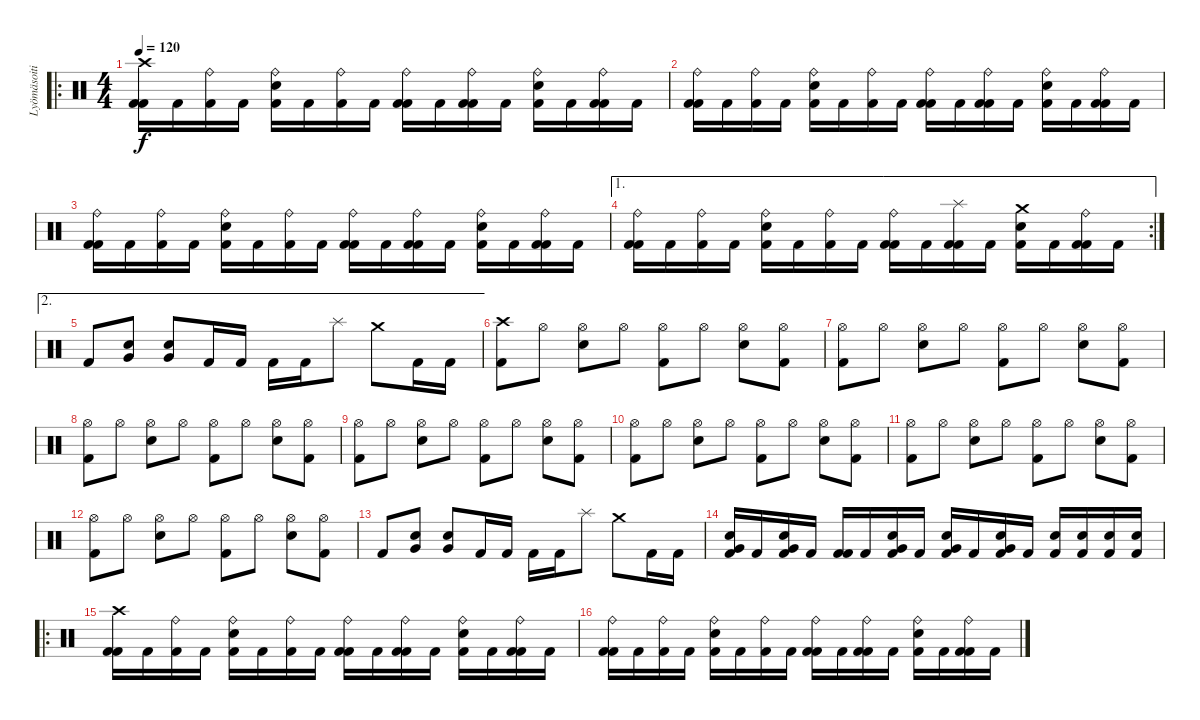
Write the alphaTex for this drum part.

\track ("Lyömäsoitin" "Lyömäsoiti") {instrument percussion}
\staff {score}
\articulation defaults
\ro
\ts (4 4)
\tempo 120
\clef neutral
\ks c
("Crash high (hit)" "Kick (hit) 2" "Kick (hit) 2").16{dy f} "Kick (hit) 2".16 ("Ride (bell)" "Kick (hit) 2").16 "Kick (hit) 2".16 ("Ride (bell)" "Snare (hit) 2" "Kick (hit) 2").16 "Kick (hit) 2".16 ("Ride (bell)" "Kick (hit) 2").16 "Kick (hit) 2".16 ("Ride (bell)" "Kick (hit) 2" "Kick (hit) 2").16 "Kick (hit) 2".16 ("Ride (bell)" "Kick (hit) 2" "Kick (hit) 2").16 "Kick (hit) 2".16 ("Ride (bell)" "Snare (hit) 2" "Kick (hit) 2").16 "Kick (hit) 2".16 ("Ride (bell)" "Kick (hit) 2" "Kick (hit) 2").16 "Kick (hit) 2".16 |
("Ride (bell)" "Kick (hit) 2" "Kick (hit) 2").16 "Kick (hit) 2".16 ("Ride (bell)" "Kick (hit) 2").16 "Kick (hit) 2".16 ("Ride (bell)" "Snare (hit) 2" "Kick (hit) 2").16 "Kick (hit) 2".16 ("Ride (bell)" "Kick (hit) 2").16 "Kick (hit) 2".16 ("Ride (bell)" "Kick (hit) 2" "Kick (hit) 2").16 "Kick (hit) 2".16 ("Ride (bell)" "Kick (hit) 2" "Kick (hit) 2").16 "Kick (hit) 2".16 ("Ride (bell)" "Snare (hit) 2" "Kick (hit) 2").16 "Kick (hit) 2".16 ("Ride (bell)" "Kick (hit) 2" "Kick (hit) 2").16 "Kick (hit) 2".16 |
("Ride (bell)" "Kick (hit) 2" "Kick (hit) 2").16 "Kick (hit) 2".16 ("Ride (bell)" "Kick (hit) 2").16 "Kick (hit) 2".16 ("Ride (bell)" "Snare (hit) 2" "Kick (hit) 2").16 "Kick (hit) 2".16 ("Ride (bell)" "Kick (hit) 2").16 "Kick (hit) 2".16 ("Ride (bell)" "Kick (hit) 2" "Kick (hit) 2").16 "Kick (hit) 2".16 ("Ride (bell)" "Kick (hit) 2" "Kick (hit) 2").16 "Kick (hit) 2".16 ("Ride (bell)" "Snare (hit) 2" "Kick (hit) 2").16 "Kick (hit) 2".16 ("Ride (bell)" "Kick (hit) 2" "Kick (hit) 2").16 "Kick (hit) 2".16 |
\ae 1
\rc 2
("Ride (bell)" "Kick (hit) 2" "Kick (hit) 2").16 "Kick (hit) 2".16 ("Ride (bell)" "Kick (hit) 2").16 "Kick (hit) 2".16 ("Ride (bell)" "Snare (hit) 2" "Kick (hit) 2").16 "Kick (hit) 2".16 ("Ride (bell)" "Kick (hit) 2").16 "Kick (hit) 2".16 ("Ride (bell)" "Kick (hit) 2" "Kick (hit) 2").16 "Kick (hit) 2".16 ("Splash (hit)" "Kick (hit) 2" "Kick (hit) 2").16 "Kick (hit) 2".16 ("Crash medium (hit)" "Snare (hit) 2" "Kick (hit) 2").16 "Kick (hit) 2".16 ("Ride (bell)" "Kick (hit) 2" "Kick (hit) 2").16 "Kick (hit) 2".16 |
\ae 2 "Kick (hit) 2".8
("Very Low Tom (hit)" "Snare (hit) 2").8 ("Very Low Tom (hit)" "Snare (hit) 2").8 "Kick (hit) 2".16 "Kick (hit) 2".16 "Kick (hit) 2".16 "Kick (hit) 2".16 "Splash (hit)".8 "Crash medium (hit)".8 "Kick (hit) 2".16 "Kick (hit) 2".16 |
("Crash high (hit)" "Kick (hit) 2").8 "Hi-Hat (open)".8 ("Hi-Hat (open)" "Snare (hit) 2").8 "Hi-Hat (open)".8 ("Hi-Hat (open)" "Kick (hit) 2").8 "Hi-Hat (open)".8 ("Hi-Hat (open)" "Snare (hit) 2").8 ("Hi-Hat (open)" "Kick (hit) 2").8 |
("Hi-Hat (open)" "Kick (hit) 2").8 "Hi-Hat (open)".8 ("Hi-Hat (open)" "Snare (hit) 2").8 "Hi-Hat (open)".8 ("Hi-Hat (open)" "Kick (hit) 2").8 "Hi-Hat (open)".8 ("Hi-Hat (open)" "Snare (hit) 2").8 ("Hi-Hat (open)" "Kick (hit) 2").8 |
("Hi-Hat (open)" "Kick (hit) 2").8 "Hi-Hat (open)".8 ("Hi-Hat (open)" "Snare (hit) 2").8 "Hi-Hat (open)".8 ("Hi-Hat (open)" "Kick (hit) 2").8 "Hi-Hat (open)".8 ("Hi-Hat (open)" "Snare (hit) 2").8 ("Hi-Hat (open)" "Kick (hit) 2").8 |
("Hi-Hat (open)" "Kick (hit) 2").8 "Hi-Hat (open)".8 ("Hi-Hat (open)" "Snare (hit) 2").8 "Hi-Hat (open)".8 ("Hi-Hat (open)" "Kick (hit) 2").8 "Hi-Hat (open)".8 ("Hi-Hat (open)" "Snare (hit) 2").8 ("Hi-Hat (open)" "Kick (hit) 2").8 |
("Hi-Hat (open)" "Kick (hit) 2").8 "Hi-Hat (open)".8 ("Hi-Hat (open)" "Snare (hit) 2").8 "Hi-Hat (open)".8 ("Hi-Hat (open)" "Kick (hit) 2").8 "Hi-Hat (open)".8 ("Hi-Hat (open)" "Snare (hit) 2").8 ("Hi-Hat (open)" "Kick (hit) 2").8 |
("Hi-Hat (open)" "Kick (hit) 2").8 "Hi-Hat (open)".8 ("Hi-Hat (open)" "Snare (hit) 2").8 "Hi-Hat (open)".8 ("Hi-Hat (open)" "Kick (hit) 2").8 "Hi-Hat (open)".8 ("Hi-Hat (open)" "Snare (hit) 2").8 ("Hi-Hat (open)" "Kick (hit) 2").8 |
("Hi-Hat (open)" "Kick (hit) 2").8 "Hi-Hat (open)".8 ("Hi-Hat (open)" "Snare (hit) 2").8 "Hi-Hat (open)".8 ("Hi-Hat (open)" "Kick (hit) 2").8 "Hi-Hat (open)".8 ("Hi-Hat (open)" "Snare (hit) 2").8 ("Hi-Hat (open)" "Kick (hit) 2").8 |
"Kick (hit) 2".8 ("Very Low Tom (hit)" "Snare (hit) 2").8 ("Very Low Tom (hit)" "Snare (hit) 2").8 "Kick (hit) 2".16 "Kick (hit) 2".16 "Kick (hit) 2".16 "Kick (hit) 2".16 "Splash (hit)".8 "Crash medium (hit)".8 "Kick (hit) 2".16 "Kick (hit) 2".16 |
("Very Low Tom (hit)" "Snare (hit) 2" "Kick (hit) 2").16 "Kick (hit) 2".16 ("Very Low Tom (hit)" "Snare (hit) 2" "Kick (hit) 2").16 "Kick (hit) 2".16 ("Kick (hit) 2" "Kick (hit) 2").16 "Kick (hit) 2".16 ("Very Low Tom (hit)" "Snare (hit) 2" "Kick (hit) 2").16 "Kick (hit) 2".16 ("Very Low Tom (hit)" "Snare (hit) 2" "Kick (hit) 2").16 "Kick (hit) 2".16 ("Very Low Tom (hit)" "Snare (hit) 2" "Kick (hit) 2").16 "Kick (hit) 2".16 ("Snare (hit) 2" "Kick (hit) 2").16 ("Snare (hit) 2" "Kick (hit) 2").16 ("Snare (hit) 2" "Kick (hit) 2").16 ("Snare (hit) 2" "Kick (hit) 2").16 |
\ro
("Crash high (hit)" "Kick (hit) 2" "Kick (hit) 2").16 "Kick (hit) 2".16 ("Ride (bell)" "Kick (hit) 2").16 "Kick (hit) 2".16 ("Ride (bell)" "Snare (hit) 2" "Kick (hit) 2").16 "Kick (hit) 2".16 ("Ride (bell)" "Kick (hit) 2").16 "Kick (hit) 2".16 ("Ride (bell)" "Kick (hit) 2" "Kick (hit) 2").16 "Kick (hit) 2".16 ("Ride (bell)" "Kick (hit) 2" "Kick (hit) 2").16 "Kick (hit) 2".16 ("Ride (bell)" "Snare (hit) 2" "Kick (hit) 2").16 "Kick (hit) 2".16 ("Ride (bell)" "Kick (hit) 2" "Kick (hit) 2").16 "Kick (hit) 2".16 |
("Ride (bell)" "Kick (hit) 2" "Kick (hit) 2").16 "Kick (hit) 2".16 ("Ride (bell)" "Kick (hit) 2").16 "Kick (hit) 2".16 ("Ride (bell)" "Snare (hit) 2" "Kick (hit) 2").16 "Kick (hit) 2".16 ("Ride (bell)" "Kick (hit) 2").16 "Kick (hit) 2".16 ("Ride (bell)" "Kick (hit) 2" "Kick (hit) 2").16 "Kick (hit) 2".16 ("Ride (bell)" "Kick (hit) 2" "Kick (hit) 2").16 "Kick (hit) 2".16 ("Ride (bell)" "Snare (hit) 2" "Kick (hit) 2").16 "Kick (hit) 2".16 ("Ride (bell)" "Kick (hit) 2" "Kick (hit) 2").16 "Kick (hit) 2".16
